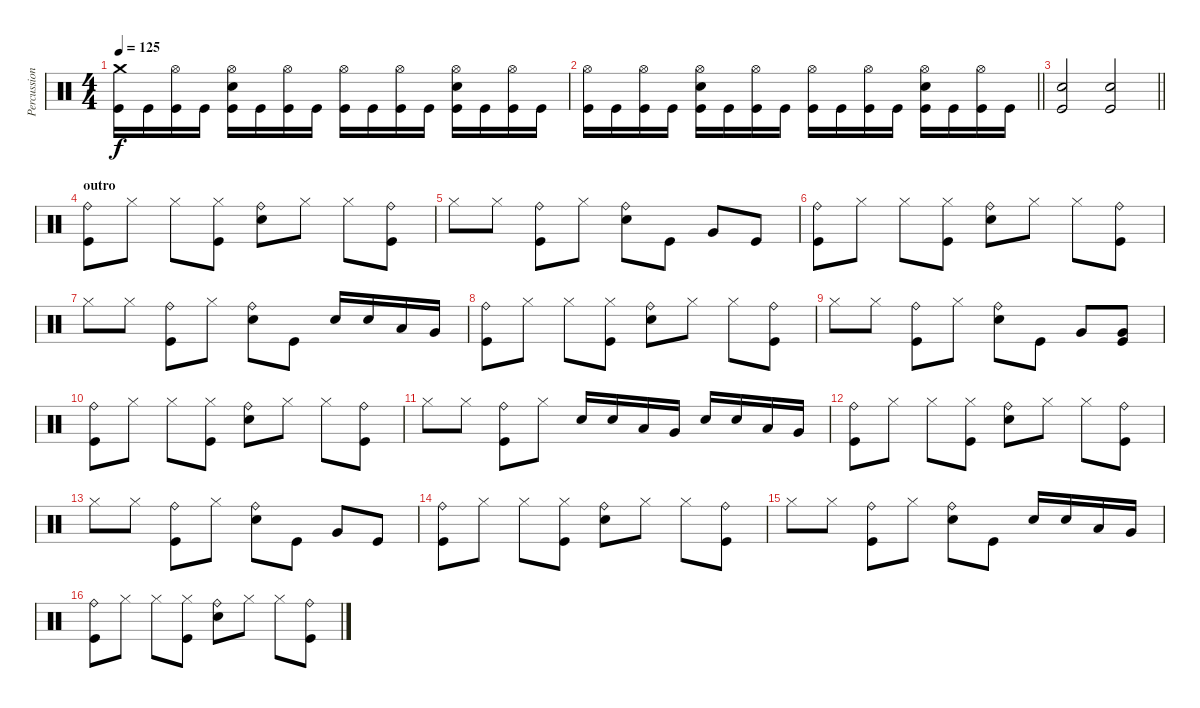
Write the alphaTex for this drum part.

\track ("Percussion" "Percussion") {instrument percussion}
\staff {score}
\articulation defaults
\ts (4 4)
\tempo 125
\clef neutral
\ks c
("Crash medium (hit)" "Kick (hit)").16{dy f} "Kick (hit)".16 ("Hi-Hat (open)" "Kick (hit)").16 "Kick (hit)".16 ("Hi-Hat (open)" "Electric Snare (hit)" "Kick (hit)").16 "Kick (hit)".16 ("Hi-Hat (open)" "Kick (hit)").16 "Kick (hit)".16 ("Hi-Hat (open)" "Kick (hit)").16 "Kick (hit)".16 ("Hi-Hat (open)" "Kick (hit)").16 "Kick (hit)".16 ("Hi-Hat (open)" "Electric Snare (hit)" "Kick (hit)").16 "Kick (hit)".16 ("Hi-Hat (open)" "Kick (hit)").16 "Kick (hit)".16 |
\barLineRight lightlight
("Hi-Hat (open)" "Kick (hit)").16 "Kick (hit)".16 ("Hi-Hat (open)" "Kick (hit)").16 "Kick (hit)".16 ("Hi-Hat (open)" "Electric Snare (hit)" "Kick (hit)").16 "Kick (hit)".16 ("Hi-Hat (open)" "Kick (hit)").16 "Kick (hit)".16 ("Hi-Hat (open)" "Kick (hit)").16 "Kick (hit)".16 ("Hi-Hat (open)" "Kick (hit)").16 "Kick (hit)".16 ("Hi-Hat (open)" "Electric Snare (hit)" "Kick (hit)").16 "Kick (hit)".16 ("Hi-Hat (open)" "Kick (hit)").16 "Kick (hit)".16 |
\barLineRight lightlight
("Electric Snare (hit)" "Kick (hit)").2 ("Electric Snare (hit)" "Kick (hit)").2 |
\section ("" "outro")
("Ride (bell)" "Kick (hit)").8 "Hi-Hat (closed)".8 "Hi-Hat (closed)".8 ("Hi-Hat (closed)" "Kick (hit)").8 ("Ride (bell)" "Electric Snare (hit)").8 "Hi-Hat (closed)".8 "Hi-Hat (closed)".8 ("Ride (bell)" "Kick (hit)").8 |
"Hi-Hat (closed)".8 "Hi-Hat (closed)".8 ("Ride (bell)" "Kick (hit)").8 "Hi-Hat (closed)".8 ("Ride (bell)" "Electric Snare (hit)").8 "Kick (hit)".8 "Very Low Tom (hit)".8 "Kick (hit)".8 |
("Ride (bell)" "Kick (hit)").8 "Hi-Hat (closed)".8 "Hi-Hat (closed)".8 ("Hi-Hat (closed)" "Kick (hit)").8 ("Ride (bell)" "Electric Snare (hit)").8 "Hi-Hat (closed)".8 "Hi-Hat (closed)".8 ("Ride (bell)" "Kick (hit)").8 |
"Hi-Hat (closed)".8 "Hi-Hat (closed)".8 ("Ride (bell)" "Kick (hit)").8 "Hi-Hat (closed)".8 ("Ride (bell)" "Electric Snare (hit)").8 "Kick (hit)".8 "Electric Snare (hit)".16 "Electric Snare (hit)".16 "Low Tom (hit)".16 "Very Low Tom (hit)".16 |
("Ride (bell)" "Kick (hit)").8 "Hi-Hat (closed)".8 "Hi-Hat (closed)".8 ("Hi-Hat (closed)" "Kick (hit)").8 ("Ride (bell)" "Electric Snare (hit)").8 "Hi-Hat (closed)".8 "Hi-Hat (closed)".8 ("Ride (bell)" "Kick (hit)").8 |
"Hi-Hat (closed)".8 "Hi-Hat (closed)".8 ("Ride (bell)" "Kick (hit)").8 "Hi-Hat (closed)".8 ("Ride (bell)" "Electric Snare (hit)").8 "Kick (hit)".8 "Very Low Tom (hit)".8 ("Very Low Tom (hit)" "Kick (hit)").8 |
("Ride (bell)" "Kick (hit)").8 "Hi-Hat (closed)".8 "Hi-Hat (closed)".8 ("Hi-Hat (closed)" "Kick (hit)").8 ("Ride (bell)" "Electric Snare (hit)").8 "Hi-Hat (closed)".8 "Hi-Hat (closed)".8 ("Ride (bell)" "Kick (hit)").8 |
"Hi-Hat (closed)".8 "Hi-Hat (closed)".8 ("Ride (bell)" "Kick (hit)").8 "Hi-Hat (closed)".8 "Electric Snare (hit)".16 "Electric Snare (hit)".16 "Low Tom (hit)".16 "Very Low Tom (hit)".16 "Electric Snare (hit)".16 "Electric Snare (hit)".16 "Low Tom (hit)".16 "Very Low Tom (hit)".16 |
("Ride (bell)" "Kick (hit)").8 "Hi-Hat (closed)".8 "Hi-Hat (closed)".8 ("Hi-Hat (closed)" "Kick (hit)").8 ("Ride (bell)" "Electric Snare (hit)").8 "Hi-Hat (closed)".8 "Hi-Hat (closed)".8 ("Ride (bell)" "Kick (hit)").8 |
"Hi-Hat (closed)".8 "Hi-Hat (closed)".8 ("Ride (bell)" "Kick (hit)").8 "Hi-Hat (closed)".8 ("Ride (bell)" "Electric Snare (hit)").8 "Kick (hit)".8 "Very Low Tom (hit)".8 "Kick (hit)".8 |
("Ride (bell)" "Kick (hit)").8 "Hi-Hat (closed)".8 "Hi-Hat (closed)".8 ("Hi-Hat (closed)" "Kick (hit)").8 ("Ride (bell)" "Electric Snare (hit)").8 "Hi-Hat (closed)".8 "Hi-Hat (closed)".8 ("Ride (bell)" "Kick (hit)").8 |
"Hi-Hat (closed)".8 "Hi-Hat (closed)".8 ("Ride (bell)" "Kick (hit)").8 "Hi-Hat (closed)".8 ("Ride (bell)" "Electric Snare (hit)").8 "Kick (hit)".8 "Electric Snare (hit)".16 "Electric Snare (hit)".16 "Low Tom (hit)".16 "Very Low Tom (hit)".16 |
("Ride (bell)" "Kick (hit)").8 "Hi-Hat (closed)".8 "Hi-Hat (closed)".8 ("Hi-Hat (closed)" "Kick (hit)").8 ("Ride (bell)" "Electric Snare (hit)").8 "Hi-Hat (closed)".8 "Hi-Hat (closed)".8 ("Ride (bell)" "Kick (hit)").8
